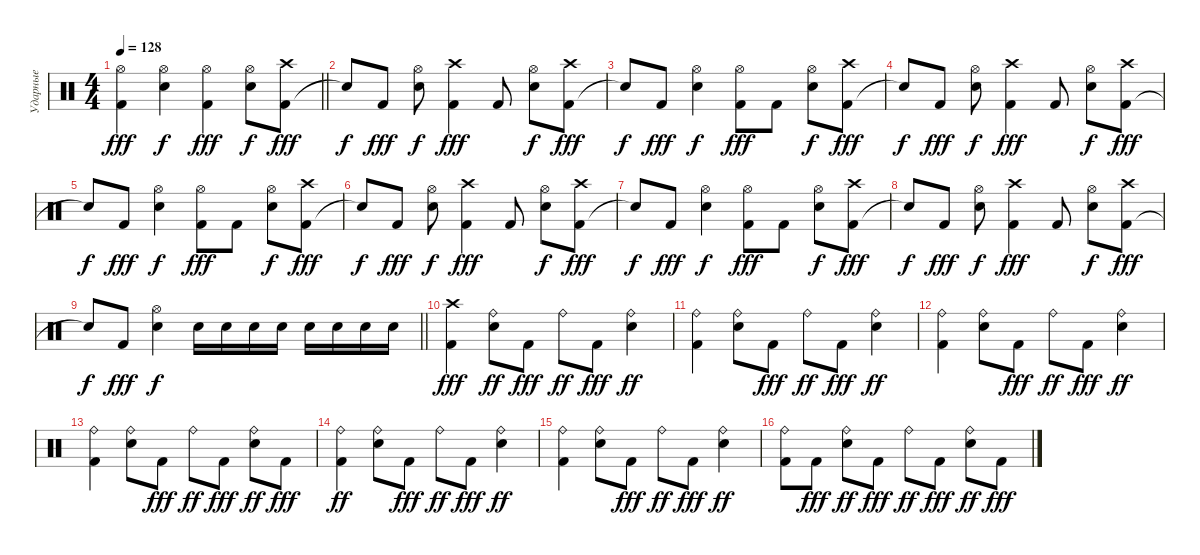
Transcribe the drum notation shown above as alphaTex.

\track ("Ударные" "Ударные") {instrument percussion}
\staff {score}
\articulation defaults
\ts (4 4)
\tempo 128
\clef neutral
\barLineRight lightlight
\ks c
("Kick (hit) 2" "Hi-Hat (open)").4{dy fff} ("Snare (hit) 2" "Hi-Hat (open)").4{dy f} ("Kick (hit) 2" "Hi-Hat (open)").4{dy fff} ("Snare (hit) 2" "Hi-Hat (open)").8{dy f} ("Kick (hit) 2" "Crash high (hit)").8{dy fff} |
"Snare (hit)"{t}.8{dy f} "Kick (hit) 2".8{dy fff} ("Snare (hit) 2" "Hi-Hat (open)").8{dy f} ("Kick (hit) 2" "Crash high (hit)").4{dy fff} "Kick (hit) 2".8 ("Snare (hit) 2" "Hi-Hat (open)").8{dy f} ("Kick (hit) 2" "Crash high (hit)").8{dy fff} |
"Snare (hit)"{t}.8{dy f} "Kick (hit) 2".8{dy fff} ("Snare (hit) 2" "Hi-Hat (open)").4{dy f} ("Kick (hit) 2" "Hi-Hat (open)").8{dy fff} "Kick (hit) 2".8 ("Snare (hit) 2" "Hi-Hat (open)").8{dy f} ("Kick (hit) 2" "Crash high (hit)").8{dy fff} |
"Snare (hit)"{t}.8{dy f} "Kick (hit) 2".8{dy fff} ("Snare (hit) 2" "Hi-Hat (open)").8{dy f} ("Kick (hit) 2" "Crash high (hit)").4{dy fff} "Kick (hit) 2".8 ("Snare (hit) 2" "Hi-Hat (open)").8{dy f} ("Kick (hit) 2" "Crash high (hit)").8{dy fff} |
"Snare (hit)"{t}.8{dy f} "Kick (hit) 2".8{dy fff} ("Snare (hit) 2" "Hi-Hat (open)").4{dy f} ("Kick (hit) 2" "Hi-Hat (open)").8{dy fff} "Kick (hit) 2".8 ("Snare (hit) 2" "Hi-Hat (open)").8{dy f} ("Kick (hit) 2" "Crash high (hit)").8{dy fff} |
"Snare (hit)"{t}.8{dy f} "Kick (hit) 2".8{dy fff} ("Snare (hit) 2" "Hi-Hat (open)").8{dy f} ("Kick (hit) 2" "Crash high (hit)").4{dy fff} "Kick (hit) 2".8 ("Snare (hit) 2" "Hi-Hat (open)").8{dy f} ("Kick (hit) 2" "Crash high (hit)").8{dy fff} |
"Snare (hit)"{t}.8{dy f} "Kick (hit) 2".8{dy fff} ("Snare (hit) 2" "Hi-Hat (open)").4{dy f} ("Kick (hit) 2" "Hi-Hat (open)").8{dy fff} "Kick (hit) 2".8 ("Snare (hit) 2" "Hi-Hat (open)").8{dy f} ("Kick (hit) 2" "Crash high (hit)").8{dy fff} |
"Snare (hit)"{t}.8{dy f} "Kick (hit) 2".8{dy fff} ("Snare (hit) 2" "Hi-Hat (open)").8{dy f} ("Kick (hit) 2" "Crash high (hit)").4{dy fff} "Kick (hit) 2".8 ("Snare (hit) 2" "Hi-Hat (open)").8{dy f} ("Kick (hit) 2" "Crash high (hit)").8{dy fff} |
\barLineRight lightlight "Snare (hit)"{t}.8{dy f} "Kick (hit) 2".8{dy fff}
("Snare (hit) 2" "Hi-Hat (open)").4{dy f} "Snare (hit) 2".16 "Snare (hit) 2".16 "Snare (hit) 2".16 "Snare (hit) 2".16 "Snare (hit) 2".16 "Snare (hit) 2".16 "Snare (hit) 2".16 "Snare (hit) 2".16 |
("Kick (hit) 2" "Crash high (hit)").4{dy fff} ("Snare (hit) 2" "Ride (bell)").8{dy ff} "Kick (hit) 2".8{dy fff} "Ride (bell)".8{dy ff} "Kick (hit) 2".8{dy fff} ("Snare (hit) 2" "Ride (bell)").4{dy ff} |
("Kick (hit) 2" "Ride (bell)").4 ("Snare (hit) 2" "Ride (bell)").8 "Kick (hit) 2".8{dy fff} "Ride (bell)".8{dy ff} "Kick (hit) 2".8{dy fff} ("Snare (hit) 2" "Ride (bell)").4{dy ff} |
("Kick (hit) 2" "Ride (bell)").4 ("Snare (hit) 2" "Ride (bell)").8 "Kick (hit) 2".8{dy fff} "Ride (bell)".8{dy ff} "Kick (hit) 2".8{dy fff} ("Snare (hit) 2" "Ride (bell)").4{dy ff} |
("Kick (hit) 2" "Ride (bell)").4 ("Snare (hit) 2" "Ride (bell)").8 "Kick (hit) 2".8{dy fff} "Ride (bell)".8{dy ff} "Kick (hit) 2".8{dy fff} ("Snare (hit) 2" "Ride (bell)").8{dy ff} "Kick (hit) 2".8{dy fff} |
("Kick (hit) 2" "Ride (bell)").4{dy ff} ("Snare (hit) 2" "Ride (bell)").8 "Kick (hit) 2".8{dy fff} "Ride (bell)".8{dy ff} "Kick (hit) 2".8{dy fff} ("Snare (hit) 2" "Ride (bell)").4{dy ff} |
("Kick (hit) 2" "Ride (bell)").4 ("Snare (hit) 2" "Ride (bell)").8 "Kick (hit) 2".8{dy fff} "Ride (bell)".8{dy ff} "Kick (hit) 2".8{dy fff} ("Snare (hit) 2" "Ride (bell)").4{dy ff} |
("Kick (hit) 2" "Ride (bell)").8 "Kick (hit) 2".8{dy fff} ("Snare (hit) 2" "Ride (bell)").8{dy ff} "Kick (hit) 2".8{dy fff} "Ride (bell)".8{dy ff} "Kick (hit) 2".8{dy fff} ("Snare (hit) 2" "Ride (bell)").8{dy ff} "Kick (hit) 2".8{dy fff}
